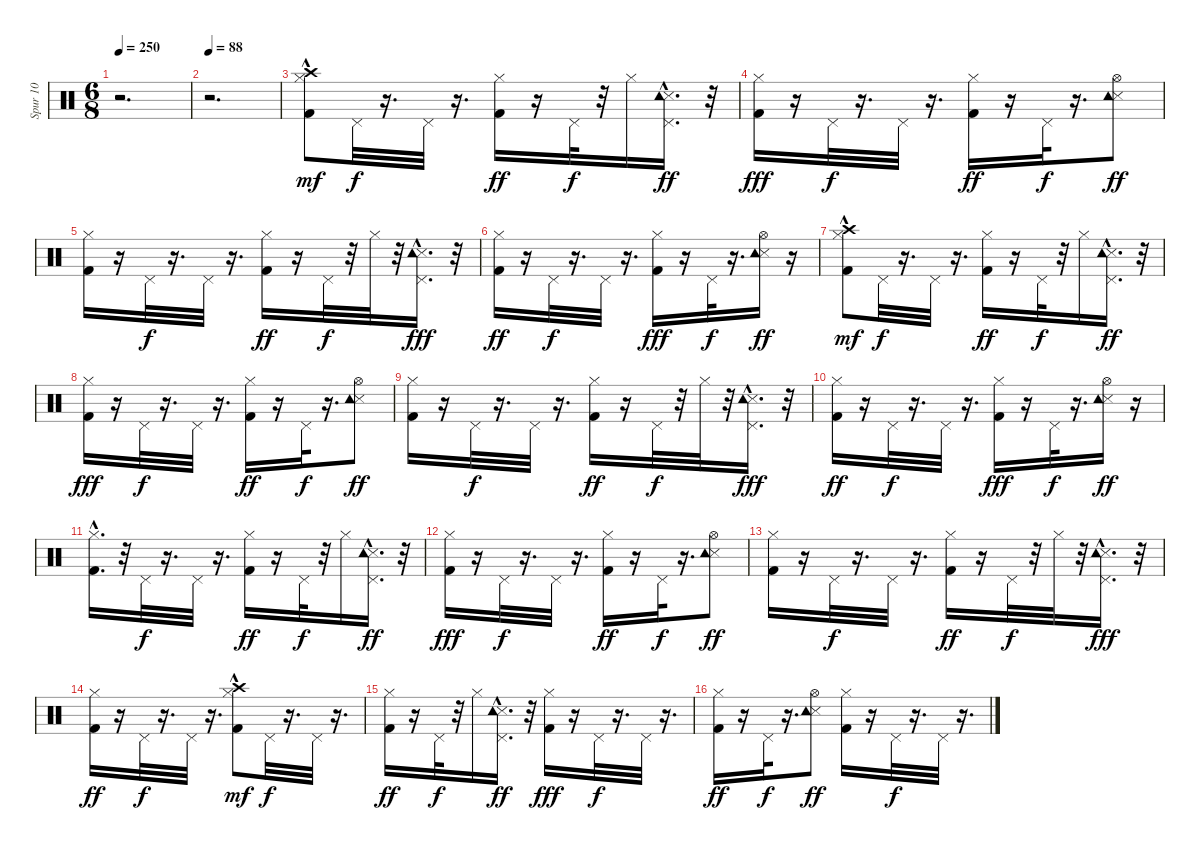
\track ("Spur 10" "Spur 10") {instrument percussion}
\staff {score}
\articulation defaults
\ts (6 8)
\tempo 250
\clef neutral
\ks c
r.2{d dy mf} |
\tempo 88
r.2{d} |
("Kick (hit) 2"{hac} "Hi-Hat (closed)"{hac} "Crash high (hit)").8 "Pedal Hi-Hat (hit)".32{dy f} r.16{d} "Pedal Hi-Hat (hit)".32 r.16{d} ("Kick (hit) 2" "Hi-Hat (closed)").16{dy ff} r.16 "Pedal Hi-Hat (hit)".32{dy f} r.32 "Hi-Hat (closed)".16 ("Snare (side stick) 3" "Pedal Hi-Hat (hit)" "Tambourine (hit)"{hac}).16{d dy ff} r.32 |
("Kick (hit) 2" "Hi-Hat (closed)").16{dy fff} r.16 "Pedal Hi-Hat (hit)".32{dy f} r.16{d} "Pedal Hi-Hat (hit)".32 r.16{d} ("Kick (hit) 2" "Hi-Hat (closed)").16{dy ff} r.16 "Pedal Hi-Hat (hit)".32{dy f} r.16{d} ("Snare (side stick) 3" "Hi-Hat (open)" "Tambourine (hit)").8{dy ff} |
("Kick (hit) 2" "Hi-Hat (closed)").16 r.16 "Pedal Hi-Hat (hit)".32{dy f} r.16{d} "Pedal Hi-Hat (hit)".32 r.16{d} ("Kick (hit) 2" "Hi-Hat (closed)").16{dy ff} r.16 "Pedal Hi-Hat (hit)".32{dy f} r.32 "Hi-Hat (closed)".32 r.32 ("Pedal Hi-Hat (hit)" "Snare (side stick) 3" "Tambourine (hit)"{hac}).16{d dy fff} r.32 |
("Kick (hit) 2" "Hi-Hat (closed)").16{dy ff} r.16 "Pedal Hi-Hat (hit)".32{dy f} r.16{d} "Pedal Hi-Hat (hit)".32 r.16{d} ("Kick (hit) 2" "Hi-Hat (closed)").16{dy fff} r.16 "Pedal Hi-Hat (hit)".32{dy f} r.16{d} ("Snare (side stick) 3" "Hi-Hat (open)" "Tambourine (hit)").16{dy ff} r.16 |
("Kick (hit) 2"{hac} "Hi-Hat (closed)"{hac} "Crash high (hit)").8{dy mf} "Pedal Hi-Hat (hit)".32{dy f} r.16{d} "Pedal Hi-Hat (hit)".32 r.16{d} ("Kick (hit) 2" "Hi-Hat (closed)").16{dy ff} r.16 "Pedal Hi-Hat (hit)".32{dy f} r.32 "Hi-Hat (closed)".16 ("Snare (side stick) 3" "Pedal Hi-Hat (hit)" "Tambourine (hit)"{hac}).16{d dy ff} r.32 |
("Kick (hit) 2" "Hi-Hat (closed)").16{dy fff} r.16 "Pedal Hi-Hat (hit)".32{dy f} r.16{d} "Pedal Hi-Hat (hit)".32 r.16{d} ("Kick (hit) 2" "Hi-Hat (closed)").16{dy ff} r.16 "Pedal Hi-Hat (hit)".32{dy f} r.16{d} ("Snare (side stick) 3" "Hi-Hat (open)" "Tambourine (hit)").8{dy ff} |
("Kick (hit) 2" "Hi-Hat (closed)").16 r.16 "Pedal Hi-Hat (hit)".32{dy f} r.16{d} "Pedal Hi-Hat (hit)".32 r.16{d} ("Kick (hit) 2" "Hi-Hat (closed)").16{dy ff} r.16 "Pedal Hi-Hat (hit)".32{dy f} r.32 "Hi-Hat (closed)".32 r.32 ("Pedal Hi-Hat (hit)" "Snare (side stick) 3" "Tambourine (hit)"{hac}).16{d dy fff} r.32 |
("Kick (hit) 2" "Hi-Hat (closed)").16{dy ff} r.16 "Pedal Hi-Hat (hit)".32{dy f} r.16{d} "Pedal Hi-Hat (hit)".32 r.16{d} ("Kick (hit) 2" "Hi-Hat (closed)").16{dy fff} r.16 "Pedal Hi-Hat (hit)".32{dy f} r.16{d} ("Snare (side stick) 3" "Hi-Hat (open)" "Tambourine (hit)").16{dy ff} r.16 |
("Kick (hit) 2"{hac} "Hi-Hat (closed)"{hac}).16{d} r.32 "Pedal Hi-Hat (hit)".32{dy f} r.16{d} "Pedal Hi-Hat (hit)".32 r.16{d} ("Kick (hit) 2" "Hi-Hat (closed)").16{dy ff} r.16 "Pedal Hi-Hat (hit)".32{dy f} r.32 "Hi-Hat (closed)".16 ("Snare (side stick) 3" "Pedal Hi-Hat (hit)" "Tambourine (hit)"{hac}).16{d dy ff} r.32 |
("Kick (hit) 2" "Hi-Hat (closed)").16{dy fff} r.16 "Pedal Hi-Hat (hit)".32{dy f} r.16{d} "Pedal Hi-Hat (hit)".32 r.16{d} ("Kick (hit) 2" "Hi-Hat (closed)").16{dy ff} r.16 "Pedal Hi-Hat (hit)".32{dy f} r.16{d} ("Snare (side stick) 3" "Hi-Hat (open)" "Tambourine (hit)").8{dy ff} |
("Kick (hit) 2" "Hi-Hat (closed)").16 r.16 "Pedal Hi-Hat (hit)".32{dy f} r.16{d} "Pedal Hi-Hat (hit)".32 r.16{d} ("Kick (hit) 2" "Hi-Hat (closed)").16{dy ff} r.16 "Pedal Hi-Hat (hit)".32{dy f} r.32 "Hi-Hat (closed)".32 r.32 ("Pedal Hi-Hat (hit)" "Snare (side stick) 3" "Tambourine (hit)"{hac}).16{d dy fff} r.32 |
("Kick (hit) 2" "Hi-Hat (closed)").16{dy ff} r.16 "Pedal Hi-Hat (hit)".32{dy f} r.16{d} "Pedal Hi-Hat (hit)".32 r.16{d} ("Kick (hit) 2"{hac} "Hi-Hat (closed)"{hac} "Crash high (hit)").8{dy mf} "Pedal Hi-Hat (hit)".32{dy f} r.16{d} "Pedal Hi-Hat (hit)".32 r.16{d} |
("Kick (hit) 2" "Hi-Hat (closed)").16{dy ff} r.16 "Pedal Hi-Hat (hit)".32{dy f} r.32 "Hi-Hat (closed)".16 ("Snare (side stick) 3" "Pedal Hi-Hat (hit)" "Tambourine (hit)"{hac}).16{d dy ff} r.32 ("Kick (hit) 2" "Hi-Hat (closed)").16{dy fff} r.16 "Pedal Hi-Hat (hit)".32{dy f} r.16{d} "Pedal Hi-Hat (hit)".32 r.16{d} |
("Kick (hit) 2" "Hi-Hat (closed)").16{dy ff} r.16 "Pedal Hi-Hat (hit)".32{dy f} r.16{d} ("Snare (side stick) 3" "Hi-Hat (open)" "Tambourine (hit)").8{dy ff} ("Kick (hit) 2" "Hi-Hat (closed)").16 r.16 "Pedal Hi-Hat (hit)".32{dy f} r.16{d} "Pedal Hi-Hat (hit)".32 r.16{d}
